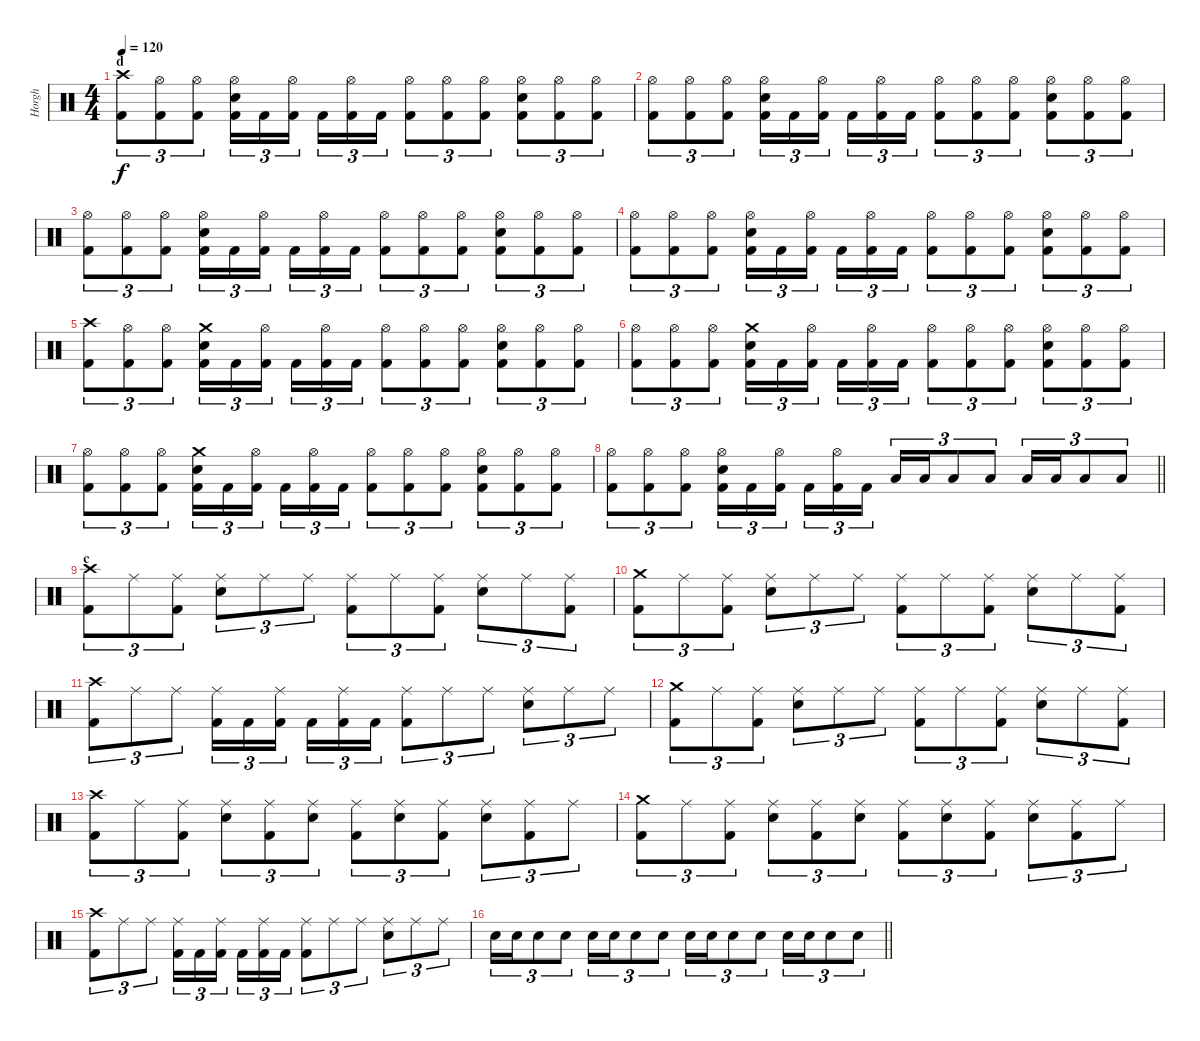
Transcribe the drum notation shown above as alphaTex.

\track ("Horgh" "Horgh") {instrument percussion}
\staff {score}
\articulation defaults
\ts (4 4)
\section ("" "d")
\tempo 120
\clef neutral
\ks c
("Crash high (hit)" "Kick (hit) 2").8{tu (3 2) dy f} ("Hi-Hat (open)" "Kick (hit) 2").8{tu (3 2)} ("Hi-Hat (open)" "Kick (hit) 2").8{tu (3 2)} ("Hi-Hat (open)" "Electric Snare (hit)" "Kick (hit) 2").16{tu (3 2)} "Kick (hit) 2".16{tu (3 2)} ("Hi-Hat (open)" "Kick (hit) 2").16{tu (3 2) beam splitsecondary} "Kick (hit) 2".16{tu (3 2)} ("Hi-Hat (open)" "Kick (hit) 2").16{tu (3 2)} "Kick (hit) 2".16{tu (3 2)} ("Hi-Hat (open)" "Kick (hit) 2").8{tu (3 2)} ("Hi-Hat (open)" "Kick (hit) 2").8{tu (3 2)} ("Hi-Hat (open)" "Kick (hit) 2").8{tu (3 2)} ("Hi-Hat (open)" "Electric Snare (hit)" "Kick (hit) 2").8{tu (3 2)} ("Hi-Hat (open)" "Kick (hit) 2").8{tu (3 2)} ("Hi-Hat (open)" "Kick (hit) 2").8{tu (3 2)} |
("Hi-Hat (open)" "Kick (hit) 2").8{tu (3 2)} ("Hi-Hat (open)" "Kick (hit) 2").8{tu (3 2)} ("Hi-Hat (open)" "Kick (hit) 2").8{tu (3 2)} ("Hi-Hat (open)" "Electric Snare (hit)" "Kick (hit) 2").16{tu (3 2)} "Kick (hit) 2".16{tu (3 2)} ("Hi-Hat (open)" "Kick (hit) 2").16{tu (3 2) beam splitsecondary} "Kick (hit) 2".16{tu (3 2)} ("Hi-Hat (open)" "Kick (hit) 2").16{tu (3 2)} "Kick (hit) 2".16{tu (3 2)} ("Hi-Hat (open)" "Kick (hit) 2").8{tu (3 2)} ("Hi-Hat (open)" "Kick (hit) 2").8{tu (3 2)} ("Hi-Hat (open)" "Kick (hit) 2").8{tu (3 2)} ("Hi-Hat (open)" "Electric Snare (hit)" "Kick (hit) 2").8{tu (3 2)} ("Hi-Hat (open)" "Kick (hit) 2").8{tu (3 2)} ("Hi-Hat (open)" "Kick (hit) 2").8{tu (3 2)} |
("Hi-Hat (open)" "Kick (hit) 2").8{tu (3 2)} ("Hi-Hat (open)" "Kick (hit) 2").8{tu (3 2)} ("Hi-Hat (open)" "Kick (hit) 2").8{tu (3 2)} ("Hi-Hat (open)" "Electric Snare (hit)" "Kick (hit) 2").16{tu (3 2)} "Kick (hit) 2".16{tu (3 2)} ("Hi-Hat (open)" "Kick (hit) 2").16{tu (3 2) beam splitsecondary} "Kick (hit) 2".16{tu (3 2)} ("Hi-Hat (open)" "Kick (hit) 2").16{tu (3 2)} "Kick (hit) 2".16{tu (3 2)} ("Hi-Hat (open)" "Kick (hit) 2").8{tu (3 2)} ("Hi-Hat (open)" "Kick (hit) 2").8{tu (3 2)} ("Hi-Hat (open)" "Kick (hit) 2").8{tu (3 2)} ("Hi-Hat (open)" "Electric Snare (hit)" "Kick (hit) 2").8{tu (3 2)} ("Hi-Hat (open)" "Kick (hit) 2").8{tu (3 2)} ("Hi-Hat (open)" "Kick (hit) 2").8{tu (3 2)} |
("Hi-Hat (open)" "Kick (hit) 2").8{tu (3 2)} ("Hi-Hat (open)" "Kick (hit) 2").8{tu (3 2)} ("Hi-Hat (open)" "Kick (hit) 2").8{tu (3 2)} ("Hi-Hat (open)" "Electric Snare (hit)" "Kick (hit) 2").16{tu (3 2)} "Kick (hit) 2".16{tu (3 2)} ("Hi-Hat (open)" "Kick (hit) 2").16{tu (3 2) beam splitsecondary} "Kick (hit) 2".16{tu (3 2)} ("Hi-Hat (open)" "Kick (hit) 2").16{tu (3 2)} "Kick (hit) 2".16{tu (3 2)} ("Hi-Hat (open)" "Kick (hit) 2").8{tu (3 2)} ("Hi-Hat (open)" "Kick (hit) 2").8{tu (3 2)} ("Hi-Hat (open)" "Kick (hit) 2").8{tu (3 2)} ("Hi-Hat (open)" "Electric Snare (hit)" "Kick (hit) 2").8{tu (3 2)} ("Hi-Hat (open)" "Kick (hit) 2").8{tu (3 2)} ("Hi-Hat (open)" "Kick (hit) 2").8{tu (3 2)} |
("Crash high (hit)" "Kick (hit) 2").8{tu (3 2)} ("Hi-Hat (open)" "Kick (hit) 2").8{tu (3 2)} ("Hi-Hat (open)" "Kick (hit) 2").8{tu (3 2)} ("Crash medium (hit)" "Electric Snare (hit)" "Kick (hit) 2").16{tu (3 2)} "Kick (hit) 2".16{tu (3 2)} ("Hi-Hat (open)" "Kick (hit) 2").16{tu (3 2) beam splitsecondary} "Kick (hit) 2".16{tu (3 2)} ("Hi-Hat (open)" "Kick (hit) 2").16{tu (3 2)} "Kick (hit) 2".16{tu (3 2)} ("Hi-Hat (open)" "Kick (hit) 2").8{tu (3 2)} ("Hi-Hat (open)" "Kick (hit) 2").8{tu (3 2)} ("Hi-Hat (open)" "Kick (hit) 2").8{tu (3 2)} ("Hi-Hat (open)" "Electric Snare (hit)" "Kick (hit) 2").8{tu (3 2)} ("Hi-Hat (open)" "Kick (hit) 2").8{tu (3 2)} ("Hi-Hat (open)" "Kick (hit) 2").8{tu (3 2)} |
("Hi-Hat (open)" "Kick (hit) 2").8{tu (3 2)} ("Hi-Hat (open)" "Kick (hit) 2").8{tu (3 2)} ("Hi-Hat (open)" "Kick (hit) 2").8{tu (3 2)} ("Crash medium (hit)" "Electric Snare (hit)" "Kick (hit) 2").16{tu (3 2)} "Kick (hit) 2".16{tu (3 2)} ("Hi-Hat (open)" "Kick (hit) 2").16{tu (3 2) beam splitsecondary} "Kick (hit) 2".16{tu (3 2)} ("Hi-Hat (open)" "Kick (hit) 2").16{tu (3 2)} "Kick (hit) 2".16{tu (3 2)} ("Hi-Hat (open)" "Kick (hit) 2").8{tu (3 2)} ("Hi-Hat (open)" "Kick (hit) 2").8{tu (3 2)} ("Hi-Hat (open)" "Kick (hit) 2").8{tu (3 2)} ("Hi-Hat (open)" "Electric Snare (hit)" "Kick (hit) 2").8{tu (3 2)} ("Hi-Hat (open)" "Kick (hit) 2").8{tu (3 2)} ("Hi-Hat (open)" "Kick (hit) 2").8{tu (3 2)} |
("Hi-Hat (open)" "Kick (hit) 2").8{tu (3 2)} ("Hi-Hat (open)" "Kick (hit) 2").8{tu (3 2)} ("Hi-Hat (open)" "Kick (hit) 2").8{tu (3 2)} ("Crash medium (hit)" "Electric Snare (hit)" "Kick (hit) 2").16{tu (3 2)} "Kick (hit) 2".16{tu (3 2)} ("Hi-Hat (open)" "Kick (hit) 2").16{tu (3 2) beam splitsecondary} "Kick (hit) 2".16{tu (3 2)} ("Hi-Hat (open)" "Kick (hit) 2").16{tu (3 2)} "Kick (hit) 2".16{tu (3 2)} ("Hi-Hat (open)" "Kick (hit) 2").8{tu (3 2)} ("Hi-Hat (open)" "Kick (hit) 2").8{tu (3 2)} ("Hi-Hat (open)" "Kick (hit) 2").8{tu (3 2)} ("Hi-Hat (open)" "Electric Snare (hit)" "Kick (hit) 2").8{tu (3 2)} ("Hi-Hat (open)" "Kick (hit) 2").8{tu (3 2)} ("Hi-Hat (open)" "Kick (hit) 2").8{tu (3 2)} |
\barLineRight lightlight
("Hi-Hat (open)" "Kick (hit) 2").8{tu (3 2)} ("Hi-Hat (open)" "Kick (hit) 2").8{tu (3 2)} ("Hi-Hat (open)" "Kick (hit) 2").8{tu (3 2)} ("Hi-Hat (open)" "Electric Snare (hit)" "Kick (hit) 2").16{tu (3 2)} "Kick (hit) 2".16{tu (3 2)} ("Hi-Hat (open)" "Kick (hit) 2").16{tu (3 2) beam splitsecondary} "Kick (hit) 2".16{tu (3 2)} ("Hi-Hat (open)" "Kick (hit) 2").16{tu (3 2)} "Kick (hit) 2".16{tu (3 2)} "Low Tom (hit)".16{tu (3 2)} "Low Tom (hit)".16{tu (3 2)} "Low Tom (hit)".8{tu (3 2)} "Low Tom (hit)".8{tu (3 2)} "Low Tom (hit)".16{tu (3 2)} "Low Tom (hit)".16{tu (3 2)} "Low Tom (hit)".8{tu (3 2)} "Low Tom (hit)".8{tu (3 2)} |
\section ("" "c")
("Crash high (hit)" "Kick (hit) 2").8{tu (3 2)} "Ride (middle)".8{tu (3 2)} ("Ride (middle)" "Kick (hit) 2").8{tu (3 2)} ("Ride (middle)" "Electric Snare (hit)").8{tu (3 2)} "Ride (middle)".8{tu (3 2)} "Ride (middle)".8{tu (3 2)} ("Ride (middle)" "Kick (hit) 2").8{tu (3 2)} "Ride (middle)".8{tu (3 2)} ("Ride (middle)" "Kick (hit) 2").8{tu (3 2)} ("Ride (middle)" "Electric Snare (hit)").8{tu (3 2)} "Ride (middle)".8{tu (3 2)} ("Ride (middle)" "Kick (hit) 2").8{tu (3 2)} |
("Crash medium (hit)" "Kick (hit) 2").8{tu (3 2)} "Ride (middle)".8{tu (3 2)} ("Ride (middle)" "Kick (hit) 2").8{tu (3 2)} ("Ride (middle)" "Electric Snare (hit)").8{tu (3 2)} "Ride (middle)".8{tu (3 2)} "Ride (middle)".8{tu (3 2)} ("Ride (middle)" "Kick (hit) 2").8{tu (3 2)} "Ride (middle)".8{tu (3 2)} ("Ride (middle)" "Kick (hit) 2").8{tu (3 2)} ("Ride (middle)" "Electric Snare (hit)").8{tu (3 2)} "Ride (middle)".8{tu (3 2)} ("Ride (middle)" "Kick (hit) 2").8{tu (3 2)} |
("Crash high (hit)" "Kick (hit) 2").8{tu (3 2)} "Ride (middle)".8{tu (3 2)} "Ride (middle)".8{tu (3 2)} ("Ride (middle)" "Kick (hit) 2").16{tu (3 2)} "Kick (hit) 2".16{tu (3 2)} ("Ride (middle)" "Kick (hit) 2").16{tu (3 2) beam splitsecondary} "Kick (hit) 2".16{tu (3 2)} ("Ride (middle)" "Kick (hit) 2").16{tu (3 2)} "Kick (hit) 2".16{tu (3 2)} ("Ride (middle)" "Kick (hit) 2").8{tu (3 2)} "Ride (middle)".8{tu (3 2)} "Ride (middle)".8{tu (3 2)} ("Ride (middle)" "Electric Snare (hit)").8{tu (3 2)} "Ride (middle)".8{tu (3 2)} "Ride (middle)".8{tu (3 2)} |
("Crash medium (hit)" "Kick (hit) 2").8{tu (3 2)} "Ride (middle)".8{tu (3 2)} ("Ride (middle)" "Kick (hit) 2").8{tu (3 2)} ("Ride (middle)" "Electric Snare (hit)").8{tu (3 2)} "Ride (middle)".8{tu (3 2)} "Ride (middle)".8{tu (3 2)} ("Ride (middle)" "Kick (hit) 2").8{tu (3 2)} "Ride (middle)".8{tu (3 2)} ("Ride (middle)" "Kick (hit) 2").8{tu (3 2)} ("Ride (middle)" "Electric Snare (hit)").8{tu (3 2)} "Ride (middle)".8{tu (3 2)} ("Ride (middle)" "Kick (hit) 2").8{tu (3 2)} |
("Crash high (hit)" "Kick (hit) 2").8{tu (3 2)} "Ride (middle)".8{tu (3 2)} ("Ride (middle)" "Kick (hit) 2").8{tu (3 2)} ("Ride (middle)" "Electric Snare (hit)").8{tu (3 2)} ("Ride (middle)" "Kick (hit) 2").8{tu (3 2)} ("Ride (middle)" "Electric Snare (hit)").8{tu (3 2)} ("Ride (middle)" "Kick (hit) 2").8{tu (3 2)} ("Ride (middle)" "Electric Snare (hit)").8{tu (3 2)} ("Ride (middle)" "Kick (hit) 2").8{tu (3 2)} ("Ride (middle)" "Electric Snare (hit)").8{tu (3 2)} ("Ride (middle)" "Kick (hit) 2").8{tu (3 2)} "Ride (middle)".8{tu (3 2)} |
("Crash medium (hit)" "Kick (hit) 2").8{tu (3 2)} "Ride (middle)".8{tu (3 2)} ("Ride (middle)" "Kick (hit) 2").8{tu (3 2)} ("Ride (middle)" "Electric Snare (hit)").8{tu (3 2)} ("Ride (middle)" "Kick (hit) 2").8{tu (3 2)} ("Ride (middle)" "Electric Snare (hit)").8{tu (3 2)} ("Ride (middle)" "Kick (hit) 2").8{tu (3 2)} ("Ride (middle)" "Electric Snare (hit)").8{tu (3 2)} ("Ride (middle)" "Kick (hit) 2").8{tu (3 2)} ("Ride (middle)" "Electric Snare (hit)").8{tu (3 2)} ("Ride (middle)" "Kick (hit) 2").8{tu (3 2)} "Ride (middle)".8{tu (3 2)} |
("Crash high (hit)" "Kick (hit) 2").8{tu (3 2)} "Ride (middle)".8{tu (3 2)} "Ride (middle)".8{tu (3 2)} ("Ride (middle)" "Kick (hit) 2").16{tu (3 2)} "Kick (hit) 2".16{tu (3 2)} ("Ride (middle)" "Kick (hit) 2").16{tu (3 2) beam splitsecondary} "Kick (hit) 2".16{tu (3 2)} ("Ride (middle)" "Kick (hit) 2").16{tu (3 2)} "Kick (hit) 2".16{tu (3 2)} ("Ride (middle)" "Kick (hit) 2").8{tu (3 2)} "Ride (middle)".8{tu (3 2)} "Ride (middle)".8{tu (3 2)} ("Ride (middle)" "Electric Snare (hit)").8{tu (3 2)} "Ride (middle)".8{tu (3 2)} "Ride (middle)".8{tu (3 2)} |
\barLineRight lightlight "Electric Snare (hit)".16{tu (3 2)} "Electric Snare (hit)".16{tu (3 2)} "Electric Snare (hit)".8{tu (3 2)} "Electric Snare (hit)".8{tu (3 2)} "Electric Snare (hit)".16{tu (3 2)} "Electric Snare (hit)".16{tu (3 2)} "Electric Snare (hit)".8{tu (3 2)} "Electric Snare (hit)".8{tu (3 2)} "Electric Snare (hit)".16{tu (3 2)} "Electric Snare (hit)".16{tu (3 2)} "Electric Snare (hit)".8{tu (3 2)} "Electric Snare (hit)".8{tu (3 2)} "Electric Snare (hit)".16{tu (3 2)} "Electric Snare (hit)".16{tu (3 2)} "Electric Snare (hit)".8{tu (3 2)} "Electric Snare (hit)".8{tu (3 2)}
